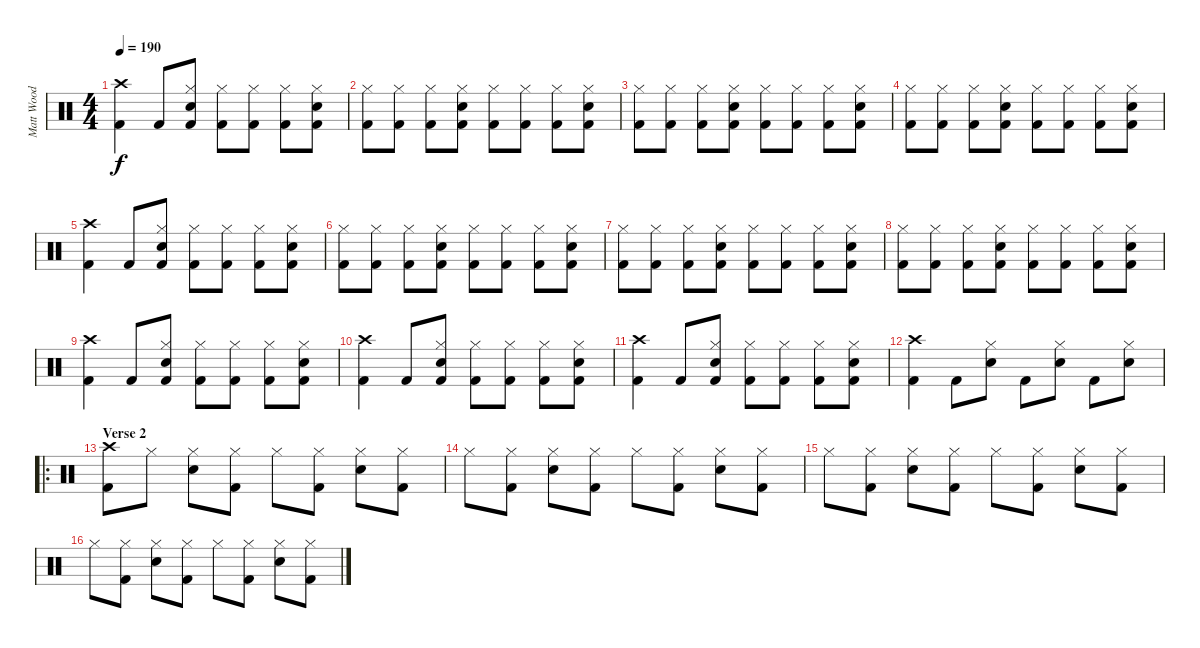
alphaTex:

\track ("Matt Wood" "Matt Wood") {instrument percussion}
\staff {score}
\articulation defaults
\ts (4 4)
\tempo 190
\clef neutral
\ks c
("Crash high (hit)" "Kick (hit) 2").4{dy f} "Kick (hit) 2".8 ("Hi-Hat (closed)" "Snare (hit) 2" "Kick (hit) 2").8 ("Hi-Hat (closed)" "Kick (hit) 2").8 ("Hi-Hat (closed)" "Kick (hit) 2").8 ("Hi-Hat (closed)" "Kick (hit) 2").8 ("Hi-Hat (closed)" "Snare (hit) 2" "Kick (hit) 2").8 |
("Hi-Hat (closed)" "Kick (hit) 2").8 ("Hi-Hat (closed)" "Kick (hit) 2").8 ("Hi-Hat (closed)" "Kick (hit) 2").8 ("Hi-Hat (closed)" "Snare (hit) 2" "Kick (hit) 2").8 ("Hi-Hat (closed)" "Kick (hit) 2").8 ("Hi-Hat (closed)" "Kick (hit) 2").8 ("Hi-Hat (closed)" "Kick (hit) 2").8 ("Hi-Hat (closed)" "Snare (hit) 2" "Kick (hit) 2").8 |
("Hi-Hat (closed)" "Kick (hit) 2").8 ("Hi-Hat (closed)" "Kick (hit) 2").8 ("Hi-Hat (closed)" "Kick (hit) 2").8 ("Hi-Hat (closed)" "Snare (hit) 2" "Kick (hit) 2").8 ("Hi-Hat (closed)" "Kick (hit) 2").8 ("Hi-Hat (closed)" "Kick (hit) 2").8 ("Hi-Hat (closed)" "Kick (hit) 2").8 ("Hi-Hat (closed)" "Snare (hit) 2" "Kick (hit) 2").8 |
("Hi-Hat (closed)" "Kick (hit) 2").8 ("Hi-Hat (closed)" "Kick (hit) 2").8 ("Hi-Hat (closed)" "Kick (hit) 2").8 ("Hi-Hat (closed)" "Snare (hit) 2" "Kick (hit) 2").8 ("Hi-Hat (closed)" "Kick (hit) 2").8 ("Hi-Hat (closed)" "Kick (hit) 2").8 ("Hi-Hat (closed)" "Kick (hit) 2").8 ("Hi-Hat (closed)" "Snare (hit) 2" "Kick (hit) 2").8 |
("Crash high (hit)" "Kick (hit) 2").4 "Kick (hit) 2".8 ("Hi-Hat (closed)" "Snare (hit) 2" "Kick (hit) 2").8 ("Hi-Hat (closed)" "Kick (hit) 2").8 ("Hi-Hat (closed)" "Kick (hit) 2").8 ("Hi-Hat (closed)" "Kick (hit) 2").8 ("Hi-Hat (closed)" "Snare (hit) 2" "Kick (hit) 2").8 |
("Hi-Hat (closed)" "Kick (hit) 2").8 ("Hi-Hat (closed)" "Kick (hit) 2").8 ("Hi-Hat (closed)" "Kick (hit) 2").8 ("Hi-Hat (closed)" "Snare (hit) 2" "Kick (hit) 2").8 ("Hi-Hat (closed)" "Kick (hit) 2").8 ("Hi-Hat (closed)" "Kick (hit) 2").8 ("Hi-Hat (closed)" "Kick (hit) 2").8 ("Hi-Hat (closed)" "Snare (hit) 2" "Kick (hit) 2").8 |
("Hi-Hat (closed)" "Kick (hit) 2").8 ("Hi-Hat (closed)" "Kick (hit) 2").8 ("Hi-Hat (closed)" "Kick (hit) 2").8 ("Hi-Hat (closed)" "Snare (hit) 2" "Kick (hit) 2").8 ("Hi-Hat (closed)" "Kick (hit) 2").8 ("Hi-Hat (closed)" "Kick (hit) 2").8 ("Hi-Hat (closed)" "Kick (hit) 2").8 ("Hi-Hat (closed)" "Snare (hit) 2" "Kick (hit) 2").8 |
("Hi-Hat (closed)" "Kick (hit) 2").8 ("Hi-Hat (closed)" "Kick (hit) 2").8 ("Hi-Hat (closed)" "Kick (hit) 2").8 ("Hi-Hat (closed)" "Snare (hit) 2" "Kick (hit) 2").8 ("Hi-Hat (closed)" "Kick (hit) 2").8 ("Hi-Hat (closed)" "Kick (hit) 2").8 ("Hi-Hat (closed)" "Kick (hit) 2").8 ("Hi-Hat (closed)" "Snare (hit) 2" "Kick (hit) 2").8 |
("Crash high (hit)" "Kick (hit) 2").4 "Kick (hit) 2".8 ("Hi-Hat (closed)" "Snare (hit) 2" "Kick (hit) 2").8 ("Hi-Hat (closed)" "Kick (hit) 2").8 ("Hi-Hat (closed)" "Kick (hit) 2").8 ("Hi-Hat (closed)" "Kick (hit) 2").8 ("Hi-Hat (closed)" "Snare (hit) 2" "Kick (hit) 2").8 |
("Crash high (hit)" "Kick (hit) 2").4 "Kick (hit) 2".8 ("Hi-Hat (closed)" "Snare (hit) 2" "Kick (hit) 2").8 ("Hi-Hat (closed)" "Kick (hit) 2").8 ("Hi-Hat (closed)" "Kick (hit) 2").8 ("Hi-Hat (closed)" "Kick (hit) 2").8 ("Hi-Hat (closed)" "Snare (hit) 2" "Kick (hit) 2").8 |
("Crash high (hit)" "Kick (hit) 2").4 "Kick (hit) 2".8 ("Hi-Hat (closed)" "Snare (hit) 2" "Kick (hit) 2").8 ("Hi-Hat (closed)" "Kick (hit) 2").8 ("Hi-Hat (closed)" "Kick (hit) 2").8 ("Hi-Hat (closed)" "Kick (hit) 2").8 ("Hi-Hat (closed)" "Snare (hit) 2" "Kick (hit) 2").8 |
("Crash high (hit)" "Kick (hit) 2").4 "Kick (hit) 2".8 ("Hi-Hat (closed)" "Snare (hit) 2").8 "Kick (hit) 2".8 ("Hi-Hat (closed)" "Snare (hit) 2").8 "Kick (hit) 2".8 ("Hi-Hat (closed)" "Snare (hit) 2").8 |
\ro
\section ("" "Verse 2")
("Crash high (hit)" "Kick (hit) 2").8 "Hi-Hat (closed)".8 ("Hi-Hat (closed)" "Snare (hit) 2").8 ("Hi-Hat (closed)" "Kick (hit) 2").8 "Hi-Hat (closed)".8 ("Hi-Hat (closed)" "Kick (hit) 2").8 ("Hi-Hat (closed)" "Snare (hit) 2").8 ("Hi-Hat (closed)" "Kick (hit) 2").8 |
"Hi-Hat (closed)".8 ("Hi-Hat (closed)" "Kick (hit) 2").8 ("Hi-Hat (closed)" "Snare (hit) 2").8 ("Hi-Hat (closed)" "Kick (hit) 2").8 "Hi-Hat (closed)".8 ("Hi-Hat (closed)" "Kick (hit) 2").8 ("Hi-Hat (closed)" "Snare (hit) 2").8 ("Hi-Hat (closed)" "Kick (hit) 2").8 |
"Hi-Hat (closed)".8 ("Hi-Hat (closed)" "Kick (hit) 2").8 ("Hi-Hat (closed)" "Snare (hit) 2").8 ("Hi-Hat (closed)" "Kick (hit) 2").8 "Hi-Hat (closed)".8 ("Hi-Hat (closed)" "Kick (hit) 2").8 ("Hi-Hat (closed)" "Snare (hit) 2").8 ("Hi-Hat (closed)" "Kick (hit) 2").8 |
"Hi-Hat (closed)".8 ("Hi-Hat (closed)" "Kick (hit) 2").8 ("Hi-Hat (closed)" "Snare (hit) 2").8 ("Hi-Hat (closed)" "Kick (hit) 2").8 "Hi-Hat (closed)".8 ("Hi-Hat (closed)" "Kick (hit) 2").8 ("Hi-Hat (closed)" "Snare (hit) 2").8 ("Hi-Hat (closed)" "Kick (hit) 2").8
